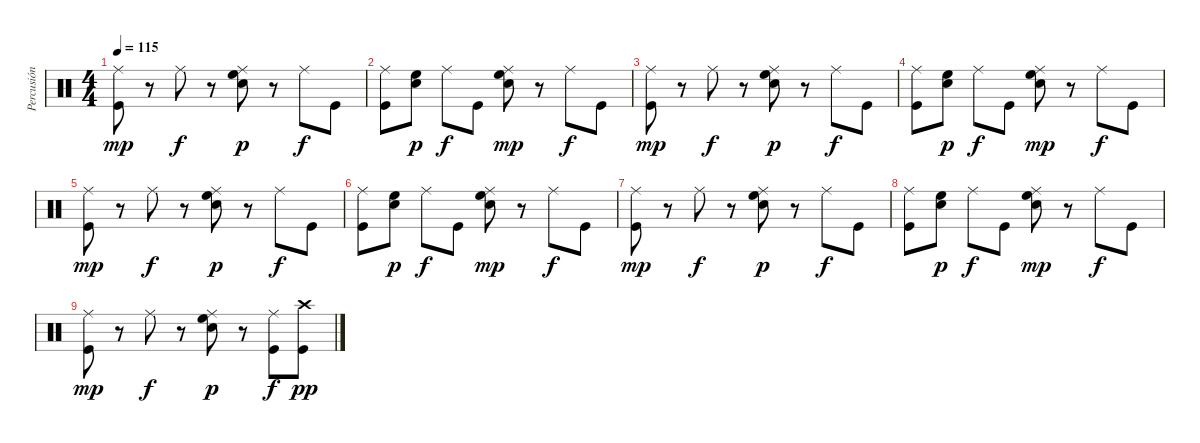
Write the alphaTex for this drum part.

\track ("Percusión" "Percusión") {instrument percussion}
\staff {score}
\articulation defaults
\ts (4 4)
\tempo 115
\clef neutral
\ks c
("Ride (middle)" "Kick (hit)").8{dy mp} r.8 "Ride (middle)".8{dy f} r.8 ("Ride (middle)" "Electric Snare (hit)" "High Floor Tom (hit)").8{dy p} r.8 "Ride (middle)".8{dy f} "Kick (hit)".8 |
("Ride (middle)" "Kick (hit)").8 ("High Floor Tom (hit)" "Electric Snare (hit)").8{dy p} "Ride (middle)".8{dy f} "Kick (hit)".8 ("Ride (middle)" "High Floor Tom (hit)" "Electric Snare (hit)").8{dy mp} r.8 "Ride (middle)".8{dy f} "Kick (hit)".8 |
("Ride (middle)" "Kick (hit)").8{dy mp} r.8 "Ride (middle)".8{dy f} r.8 ("Ride (middle)" "Electric Snare (hit)" "High Floor Tom (hit)").8{dy p} r.8 "Ride (middle)".8{dy f} "Kick (hit)".8 |
("Ride (middle)" "Kick (hit)").8 ("High Floor Tom (hit)" "Electric Snare (hit)").8{dy p} "Ride (middle)".8{dy f} "Kick (hit)".8 ("Ride (middle)" "High Floor Tom (hit)" "Electric Snare (hit)").8{dy mp} r.8 "Ride (middle)".8{dy f} "Kick (hit)".8 |
("Ride (middle)" "Kick (hit)").8{dy mp} r.8 "Ride (middle)".8{dy f} r.8 ("Ride (middle)" "Electric Snare (hit)" "High Floor Tom (hit)").8{dy p} r.8 "Ride (middle)".8{dy f} "Kick (hit)".8 |
("Ride (middle)" "Kick (hit)").8 ("High Floor Tom (hit)" "Electric Snare (hit)").8{dy p} "Ride (middle)".8{dy f} "Kick (hit)".8 ("Ride (middle)" "High Floor Tom (hit)" "Electric Snare (hit)").8{dy mp} r.8 "Ride (middle)".8{dy f} "Kick (hit)".8 |
("Ride (middle)" "Kick (hit)").8{dy mp} r.8 "Ride (middle)".8{dy f} r.8 ("Ride (middle)" "Electric Snare (hit)" "High Floor Tom (hit)").8{dy p} r.8 "Ride (middle)".8{dy f} "Kick (hit)".8 |
("Ride (middle)" "Kick (hit)").8 ("High Floor Tom (hit)" "Electric Snare (hit)").8{dy p} "Ride (middle)".8{dy f} "Kick (hit)".8 ("Ride (middle)" "High Floor Tom (hit)" "Electric Snare (hit)").8{dy mp} r.8 "Ride (middle)".8{dy f} "Kick (hit)".8 |
("Ride (middle)" "Kick (hit)").8{dy mp} r.8 "Ride (middle)".8{dy f} r.8 ("Ride (middle)" "Electric Snare (hit)" "High Floor Tom (hit)").8{dy p} r.8 ("Ride (middle)" "Kick (hit)").8{dy f} ("Crash high (hit)" "Kick (hit)").8{dy pp}
